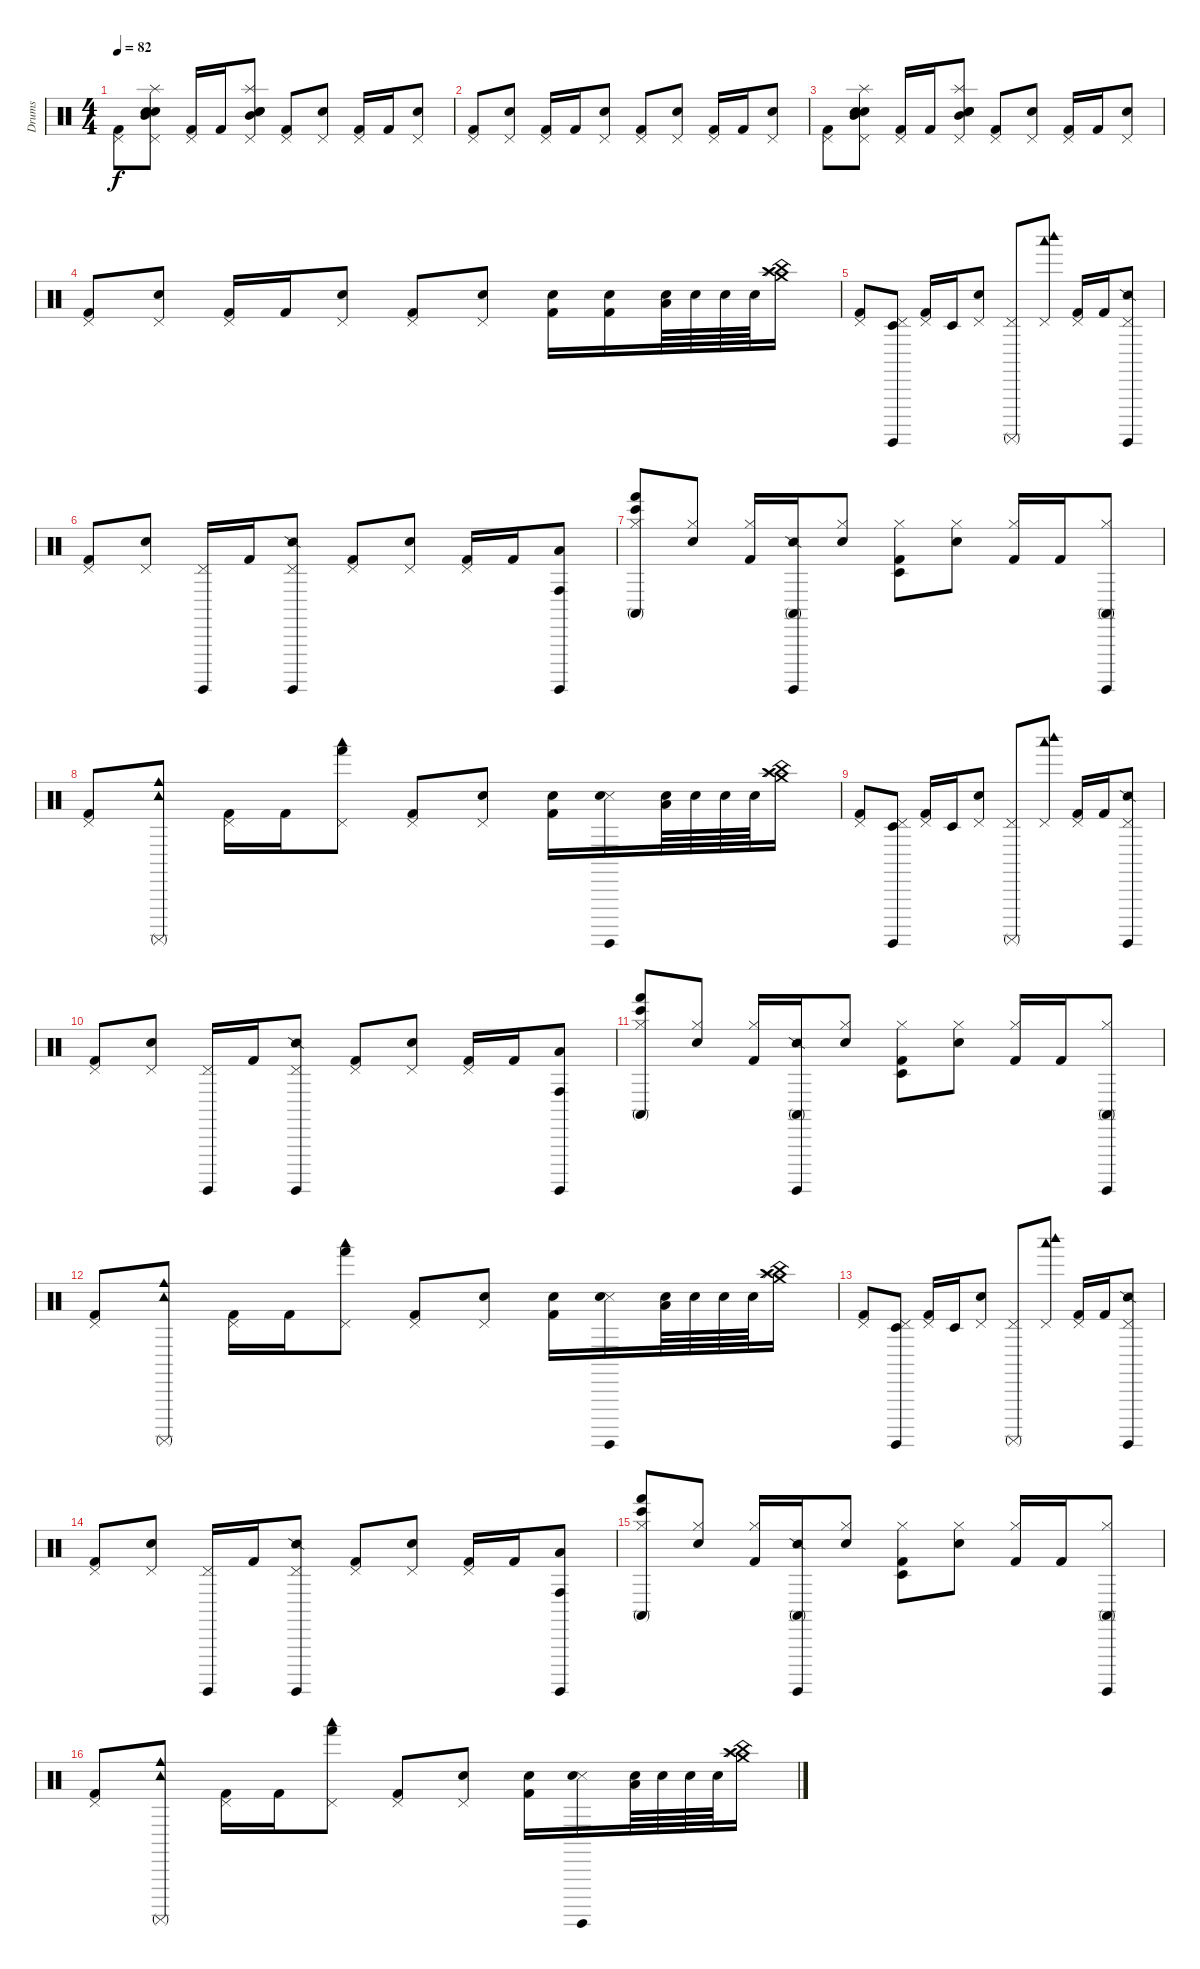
\track ("Drums" "Drums") {instrument percussion}
\staff {score}
\articulation defaults
\ts (4 4)
\tempo 82
\clef neutral
\ks c
("Kick (hit) 2" "Pedal Hi-Hat (hit)").8{dy f} ("Mid Tom (hit)" "Snare (hit) 2" "Snare (hit) 2" "Splash (hit)" "Pedal Hi-Hat (hit)").8 ("Kick (hit) 2" "Pedal Hi-Hat (hit)").16 "Kick (hit) 2".16 ("Mid Tom (hit)" "Snare (hit) 2" "Electric Snare (hit)" "Splash (hit)" "Pedal Hi-Hat (hit)").8 ("Kick (hit) 2" "Pedal Hi-Hat (hit)").8 ("Snare (hit) 2" "Pedal Hi-Hat (hit)").8 ("Kick (hit) 2" "Pedal Hi-Hat (hit)").16 "Kick (hit) 2".16 ("Snare (hit) 2" "Pedal Hi-Hat (hit)").8 |
("Kick (hit) 2" "Pedal Hi-Hat (hit)").8 ("Snare (hit) 2" "Pedal Hi-Hat (hit)").8 ("Kick (hit) 2" "Pedal Hi-Hat (hit)").16 "Kick (hit) 2".16 ("Snare (hit) 2" "Pedal Hi-Hat (hit)").8 ("Kick (hit) 2" "Pedal Hi-Hat (hit)").8 ("Snare (hit) 2" "Pedal Hi-Hat (hit)").8 ("Kick (hit) 2" "Pedal Hi-Hat (hit)").16 "Kick (hit) 2".16 ("Snare (hit) 2" "Pedal Hi-Hat (hit)").8 |
("Kick (hit) 2" "Pedal Hi-Hat (hit)").8 ("Mid Tom (hit)" "Snare (hit) 2" "Snare (hit) 2" "Splash (hit)" "Pedal Hi-Hat (hit)").8 ("Kick (hit) 2" "Pedal Hi-Hat (hit)").16 "Kick (hit) 2".16 ("Mid Tom (hit)" "Snare (hit) 2" "Electric Snare (hit)" "Splash (hit)" "Pedal Hi-Hat (hit)").8 ("Kick (hit) 2" "Pedal Hi-Hat (hit)").8 ("Snare (hit) 2" "Pedal Hi-Hat (hit)").8 ("Kick (hit) 2" "Pedal Hi-Hat (hit)").16 "Kick (hit) 2".16 ("Snare (hit) 2" "Pedal Hi-Hat (hit)").8 |
("Kick (hit) 2" "Pedal Hi-Hat (hit)").8 ("Snare (hit) 2" "Pedal Hi-Hat (hit)").8 ("Kick (hit) 2" "Pedal Hi-Hat (hit)").16 "Kick (hit) 2".16 ("Snare (hit) 2" "Pedal Hi-Hat (hit)").8 ("Kick (hit) 2" "Pedal Hi-Hat (hit)").8 ("Snare (hit) 2" "Pedal Hi-Hat (hit)").8 ("Kick (hit) 2" "Electric Snare (hit)").16 ("Kick (hit) 2" "Electric Snare (hit)").16 ("Snare (hit) 2" "Low Floor Tom (hit)").64 "Snare (hit) 2".64 "Snare (hit) 2".64 "Snare (hit) 2".64 ("China (hit)" "Crash high (hit)" "Splash (hit)" "Crash medium (hit)").16 |
("Kick (hit) 2" "Pedal Hi-Hat (hit)").8 ("Timbale low (hit)" "Surdo (hit)" "Pedal Hi-Hat (hit)").8 ("Kick (hit) 2" "Pedal Hi-Hat (hit)").16 "Timbale low (hit)".16 ("Snare (hit) 2" "Pedal Hi-Hat (hit)").8 ("Surdo (mute)" "Pedal Hi-Hat (hit)").8 ("Woodblock low (hit)" "Woodblock high (hit)" "Pedal Hi-Hat (hit)").8 ("Kick (hit) 2" "Pedal Hi-Hat (hit)").16 "Kick (hit) 2".16 ("Snare (side stick) 2" "Surdo (hit)" "Pedal Hi-Hat (hit)").8 |
("Kick (hit) 2" "Pedal Hi-Hat (hit)").8 ("Snare (hit) 2" "Pedal Hi-Hat (hit)").8 ("Surdo (hit)" "Pedal Hi-Hat (hit)").16 "Kick (hit) 2".16 ("Snare (side stick) 2" "Surdo (hit)" "Pedal Hi-Hat (hit)").8 ("Kick (hit) 2" "Pedal Hi-Hat (hit)").8 ("Snare (hit) 2" "Pedal Hi-Hat (hit)").8 ("Kick (hit) 2" "Pedal Hi-Hat (hit)").16 "Kick (hit) 2".16 ("Low Floor Tom (hit)" "Surdo (hit)" "Conga high (hit)").8 |
("Conga high (mute)" "Hand (hit)" "Bongo High (hit)" "Hi-Hat (closed)").8 ("Snare (hit) 2" "Hi-Hat (closed)").8 ("Kick (hit) 2" "Hi-Hat (closed)").16 ("Conga high (mute)" "Snare (side stick) 2" "Surdo (hit)").16 ("Snare (hit) 2" "Hi-Hat (closed)").8 ("Timbale low (hit)" "Kick (hit) 2" "Hi-Hat (closed)").8 ("Snare (hit) 2" "Hi-Hat (closed)").8 ("Kick (hit) 2" "Hi-Hat (closed)").16 "Kick (hit) 2".16 ("Surdo (hit)" "Conga high (mute)" "Hi-Hat (closed)").8 |
("Kick (hit) 2" "Pedal Hi-Hat (hit)").8 ("Surdo (mute)" "Cowbell medium (hit)" "Tambourine (hit)").8 ("Kick (hit) 2" "Pedal Hi-Hat (hit)").16 "Kick (hit) 2".16 ("Hand (hit)" "Woodblock low (hit)" "Pedal Hi-Hat (hit)").8 ("Kick (hit) 2" "Pedal Hi-Hat (hit)").8 ("Snare (hit) 2" "Pedal Hi-Hat (hit)").8 ("Kick (hit) 2" "Electric Snare (hit)").16 ("Metronome (hit)" "Surdo (hit)" "Electric Snare (hit)").16 ("Snare (hit) 2" "Low Floor Tom (hit)").64 "Snare (hit) 2".64 "Snare (hit) 2".64 "Snare (hit) 2".64 ("China (hit)" "Crash high (hit)" "Splash (hit)" "Crash medium (hit)").16 |
("Kick (hit) 2" "Pedal Hi-Hat (hit)").8 ("Timbale low (hit)" "Surdo (hit)" "Pedal Hi-Hat (hit)").8 ("Kick (hit) 2" "Pedal Hi-Hat (hit)").16 "Timbale low (hit)".16 ("Snare (hit) 2" "Pedal Hi-Hat (hit)").8 ("Surdo (mute)" "Pedal Hi-Hat (hit)").8 ("Woodblock low (hit)" "Woodblock high (hit)" "Pedal Hi-Hat (hit)").8 ("Kick (hit) 2" "Pedal Hi-Hat (hit)").16 "Kick (hit) 2".16 ("Snare (side stick) 2" "Surdo (hit)" "Pedal Hi-Hat (hit)").8 |
("Kick (hit) 2" "Pedal Hi-Hat (hit)").8 ("Snare (hit) 2" "Pedal Hi-Hat (hit)").8 ("Surdo (hit)" "Pedal Hi-Hat (hit)").16 "Kick (hit) 2".16 ("Snare (side stick) 2" "Surdo (hit)" "Pedal Hi-Hat (hit)").8 ("Kick (hit) 2" "Pedal Hi-Hat (hit)").8 ("Snare (hit) 2" "Pedal Hi-Hat (hit)").8 ("Kick (hit) 2" "Pedal Hi-Hat (hit)").16 "Kick (hit) 2".16 ("Low Floor Tom (hit)" "Surdo (hit)" "Conga high (hit)").8 |
("Conga high (mute)" "Hand (hit)" "Bongo High (hit)" "Hi-Hat (closed)").8 ("Snare (hit) 2" "Hi-Hat (closed)").8 ("Kick (hit) 2" "Hi-Hat (closed)").16 ("Conga high (mute)" "Snare (side stick) 2" "Surdo (hit)").16 ("Snare (hit) 2" "Hi-Hat (closed)").8 ("Timbale low (hit)" "Kick (hit) 2" "Hi-Hat (closed)").8 ("Snare (hit) 2" "Hi-Hat (closed)").8 ("Kick (hit) 2" "Hi-Hat (closed)").16 "Kick (hit) 2".16 ("Surdo (hit)" "Conga high (mute)" "Hi-Hat (closed)").8 |
("Kick (hit) 2" "Pedal Hi-Hat (hit)").8 ("Surdo (mute)" "Cowbell medium (hit)" "Tambourine (hit)").8 ("Kick (hit) 2" "Pedal Hi-Hat (hit)").16 "Kick (hit) 2".16 ("Hand (hit)" "Woodblock low (hit)" "Pedal Hi-Hat (hit)").8 ("Kick (hit) 2" "Pedal Hi-Hat (hit)").8 ("Snare (hit) 2" "Pedal Hi-Hat (hit)").8 ("Kick (hit) 2" "Electric Snare (hit)").16 ("Metronome (hit)" "Surdo (hit)" "Electric Snare (hit)").16 ("Snare (hit) 2" "Low Floor Tom (hit)").64 "Snare (hit) 2".64 "Snare (hit) 2".64 "Snare (hit) 2".64 ("China (hit)" "Crash high (hit)" "Splash (hit)" "Crash medium (hit)").16 |
("Kick (hit) 2" "Pedal Hi-Hat (hit)").8 ("Timbale low (hit)" "Surdo (hit)" "Pedal Hi-Hat (hit)").8 ("Kick (hit) 2" "Pedal Hi-Hat (hit)").16 "Timbale low (hit)".16 ("Snare (hit) 2" "Pedal Hi-Hat (hit)").8 ("Surdo (mute)" "Pedal Hi-Hat (hit)").8 ("Woodblock low (hit)" "Woodblock high (hit)" "Pedal Hi-Hat (hit)").8 ("Kick (hit) 2" "Pedal Hi-Hat (hit)").16 "Kick (hit) 2".16 ("Snare (side stick) 2" "Surdo (hit)" "Pedal Hi-Hat (hit)").8 |
("Kick (hit) 2" "Pedal Hi-Hat (hit)").8 ("Snare (hit) 2" "Pedal Hi-Hat (hit)").8 ("Surdo (hit)" "Pedal Hi-Hat (hit)").16 "Kick (hit) 2".16 ("Snare (side stick) 2" "Surdo (hit)" "Pedal Hi-Hat (hit)").8 ("Kick (hit) 2" "Pedal Hi-Hat (hit)").8 ("Snare (hit) 2" "Pedal Hi-Hat (hit)").8 ("Kick (hit) 2" "Pedal Hi-Hat (hit)").16 "Kick (hit) 2".16 ("Low Floor Tom (hit)" "Surdo (hit)" "Conga high (hit)").8 |
("Conga high (mute)" "Hand (hit)" "Bongo High (hit)" "Hi-Hat (closed)").8 ("Snare (hit) 2" "Hi-Hat (closed)").8 ("Kick (hit) 2" "Hi-Hat (closed)").16 ("Conga high (mute)" "Snare (side stick) 2" "Surdo (hit)").16 ("Snare (hit) 2" "Hi-Hat (closed)").8 ("Timbale low (hit)" "Kick (hit) 2" "Hi-Hat (closed)").8 ("Snare (hit) 2" "Hi-Hat (closed)").8 ("Kick (hit) 2" "Hi-Hat (closed)").16 "Kick (hit) 2".16 ("Surdo (hit)" "Conga high (mute)" "Hi-Hat (closed)").8 |
("Kick (hit) 2" "Pedal Hi-Hat (hit)").8 ("Surdo (mute)" "Cowbell medium (hit)" "Tambourine (hit)").8 ("Kick (hit) 2" "Pedal Hi-Hat (hit)").16 "Kick (hit) 2".16 ("Hand (hit)" "Woodblock low (hit)" "Pedal Hi-Hat (hit)").8 ("Kick (hit) 2" "Pedal Hi-Hat (hit)").8 ("Snare (hit) 2" "Pedal Hi-Hat (hit)").8 ("Kick (hit) 2" "Electric Snare (hit)").16 ("Metronome (hit)" "Surdo (hit)" "Electric Snare (hit)").16 ("Snare (hit) 2" "Low Floor Tom (hit)").64 "Snare (hit) 2".64 "Snare (hit) 2".64 "Snare (hit) 2".64 ("China (hit)" "Crash high (hit)" "Splash (hit)" "Crash medium (hit)").16
